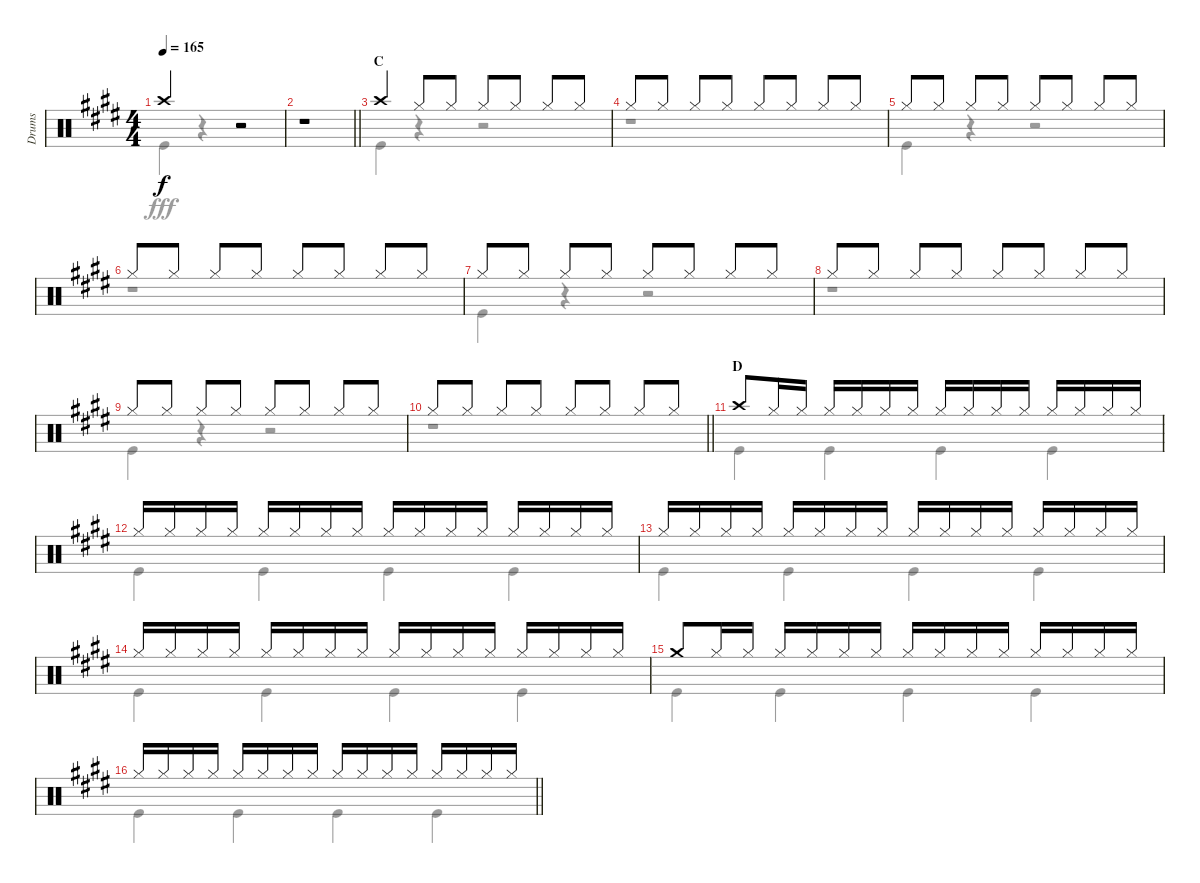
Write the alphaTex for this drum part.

\track ("Drums" "Drums") {instrument percussion}
\staff {score}
\articulation defaults
\voice
\ts (4 4)
\tempo 165
\clef neutral
\ks e "Crash high (hit)".2{dy f}
r.2 |
\barLineRight lightlight
r.1 |
\section ("" "C")
"Crash high (hit)".4 "Hi-Hat (closed)".8 "Hi-Hat (closed)".8 "Hi-Hat (closed)".8 "Hi-Hat (closed)".8 "Hi-Hat (closed)".8 "Hi-Hat (closed)".8 |
"Hi-Hat (closed)".8 "Hi-Hat (closed)".8 "Hi-Hat (closed)".8 "Hi-Hat (closed)".8 "Hi-Hat (closed)".8 "Hi-Hat (closed)".8 "Hi-Hat (closed)".8 "Hi-Hat (closed)".8 |
"Hi-Hat (closed)".8 "Hi-Hat (closed)".8 "Hi-Hat (closed)".8 "Hi-Hat (closed)".8 "Hi-Hat (closed)".8 "Hi-Hat (closed)".8 "Hi-Hat (closed)".8 "Hi-Hat (closed)".8 |
"Hi-Hat (closed)".8 "Hi-Hat (closed)".8 "Hi-Hat (closed)".8 "Hi-Hat (closed)".8 "Hi-Hat (closed)".8 "Hi-Hat (closed)".8 "Hi-Hat (closed)".8 "Hi-Hat (closed)".8 |
"Hi-Hat (closed)".8 "Hi-Hat (closed)".8 "Hi-Hat (closed)".8 "Hi-Hat (closed)".8 "Hi-Hat (closed)".8 "Hi-Hat (closed)".8 "Hi-Hat (closed)".8 "Hi-Hat (closed)".8 |
"Hi-Hat (closed)".8 "Hi-Hat (closed)".8 "Hi-Hat (closed)".8 "Hi-Hat (closed)".8 "Hi-Hat (closed)".8 "Hi-Hat (closed)".8 "Hi-Hat (closed)".8 "Hi-Hat (closed)".8 |
"Hi-Hat (closed)".8 "Hi-Hat (closed)".8 "Hi-Hat (closed)".8 "Hi-Hat (closed)".8 "Hi-Hat (closed)".8 "Hi-Hat (closed)".8 "Hi-Hat (closed)".8 "Hi-Hat (closed)".8 |
\barLineRight lightlight "Hi-Hat (closed)".8 "Hi-Hat (closed)".8 "Hi-Hat (closed)".8 "Hi-Hat (closed)".8 "Hi-Hat (closed)".8 "Hi-Hat (closed)".8 "Hi-Hat (closed)".8 "Hi-Hat (closed)".8
|
\section ("" "D")
"Crash high (hit)".8 "Hi-Hat (closed)".16 "Hi-Hat (closed)".16 "Hi-Hat (closed)".16 "Hi-Hat (closed)".16 "Hi-Hat (closed)".16 "Hi-Hat (closed)".16 "Hi-Hat (closed)".16 "Hi-Hat (closed)".16 "Hi-Hat (closed)".16 "Hi-Hat (closed)".16 "Hi-Hat (closed)".16 "Hi-Hat (closed)".16 "Hi-Hat (closed)".16 "Hi-Hat (closed)".16 |
"Hi-Hat (closed)".16 "Hi-Hat (closed)".16 "Hi-Hat (closed)".16 "Hi-Hat (closed)".16 "Hi-Hat (closed)".16 "Hi-Hat (closed)".16 "Hi-Hat (closed)".16 "Hi-Hat (closed)".16 "Hi-Hat (closed)".16 "Hi-Hat (closed)".16 "Hi-Hat (closed)".16 "Hi-Hat (closed)".16 "Hi-Hat (closed)".16 "Hi-Hat (closed)".16 "Hi-Hat (closed)".16 "Hi-Hat (closed)".16 |
"Hi-Hat (closed)".16 "Hi-Hat (closed)".16 "Hi-Hat (closed)".16 "Hi-Hat (closed)".16 "Hi-Hat (closed)".16 "Hi-Hat (closed)".16 "Hi-Hat (closed)".16 "Hi-Hat (closed)".16 "Hi-Hat (closed)".16 "Hi-Hat (closed)".16 "Hi-Hat (closed)".16 "Hi-Hat (closed)".16 "Hi-Hat (closed)".16 "Hi-Hat (closed)".16 "Hi-Hat (closed)".16 "Hi-Hat (closed)".16 |
"Hi-Hat (closed)".16 "Hi-Hat (closed)".16 "Hi-Hat (closed)".16 "Hi-Hat (closed)".16 "Hi-Hat (closed)".16 "Hi-Hat (closed)".16 "Hi-Hat (closed)".16 "Hi-Hat (closed)".16 "Hi-Hat (closed)".16 "Hi-Hat (closed)".16 "Hi-Hat (closed)".16 "Hi-Hat (closed)".16 "Hi-Hat (closed)".16 "Hi-Hat (closed)".16 "Hi-Hat (closed)".16 "Hi-Hat (closed)".16 |
"Crash medium (hit)".8 "Hi-Hat (closed)".16 "Hi-Hat (closed)".16 "Hi-Hat (closed)".16 "Hi-Hat (closed)".16 "Hi-Hat (closed)".16 "Hi-Hat (closed)".16 "Hi-Hat (closed)".16 "Hi-Hat (closed)".16 "Hi-Hat (closed)".16 "Hi-Hat (closed)".16 "Hi-Hat (closed)".16 "Hi-Hat (closed)".16 "Hi-Hat (closed)".16 "Hi-Hat (closed)".16 |
\barLineRight lightlight "Hi-Hat (closed)".16 "Hi-Hat (closed)".16 "Hi-Hat (closed)".16 "Hi-Hat (closed)".16 "Hi-Hat (closed)".16 "Hi-Hat (closed)".16 "Hi-Hat (closed)".16 "Hi-Hat (closed)".16 "Hi-Hat (closed)".16 "Hi-Hat (closed)".16 "Hi-Hat (closed)".16 "Hi-Hat (closed)".16 "Hi-Hat (closed)".16 "Hi-Hat (closed)".16 "Hi-Hat (closed)".16 "Hi-Hat (closed)".16
\voice
\clef neutral
\ottava regular
\simile none
\ks e "Kick (hit)".4{dy fff}
r.4 r.2 |
\barLineRight lightlight
r.1 |
"Kick (hit)".4 r.4 r.2 |
r.1 |
"Kick (hit)".4 r.4 r.2 |
r.1 |
"Kick (hit)".4 r.4 r.2 |
r.1 |
"Kick (hit)".4 r.4 r.2 |
\barLineRight lightlight
r.1 |
"Kick (hit)".4 "Kick (hit)".4 "Kick (hit)".4 "Kick (hit)".4 |
"Kick (hit)".4 "Kick (hit)".4 "Kick (hit)".4 "Kick (hit)".4 |
"Kick (hit)".4 "Kick (hit)".4 "Kick (hit)".4 "Kick (hit)".4 |
"Kick (hit)".4 "Kick (hit)".4 "Kick (hit)".4 "Kick (hit)".4 |
"Kick (hit)".4 "Kick (hit)".4 "Kick (hit)".4 "Kick (hit)".4 |
\barLineRight lightlight "Kick (hit)".4 "Kick (hit)".4 "Kick (hit)".4 "Kick (hit)".4
